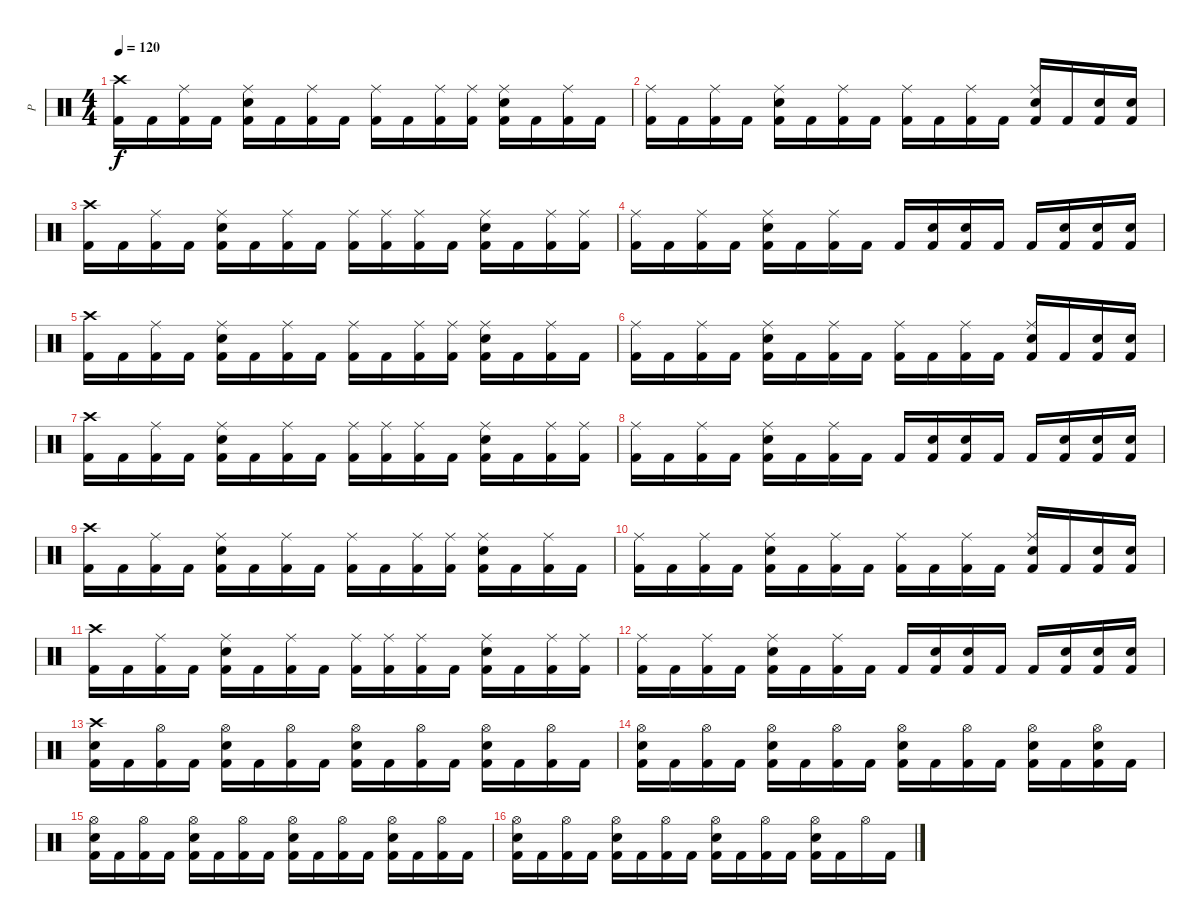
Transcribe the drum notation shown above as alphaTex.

\track ("P" "P") {instrument percussion}
\staff {score}
\articulation defaults
\ts (4 4)
\tempo 120
\clef neutral
\ks c
("Crash high (hit)" "Kick (hit) 2").16{dy f} "Kick (hit) 2".16 ("Ride (middle)" "Kick (hit) 2").16 "Kick (hit) 2".16 ("Ride (middle)" "Electric Snare (hit)" "Kick (hit) 2").16 "Kick (hit) 2".16 ("Ride (middle)" "Kick (hit) 2").16 "Kick (hit) 2".16 ("Ride (middle)" "Kick (hit) 2").16 "Kick (hit) 2".16 ("Ride (middle)" "Kick (hit) 2").16 ("Ride (middle)" "Kick (hit) 2").16 ("Ride (middle)" "Electric Snare (hit)" "Kick (hit) 2").16 "Kick (hit) 2".16 ("Ride (middle)" "Kick (hit) 2").16 "Kick (hit) 2".16 |
("Ride (middle)" "Kick (hit) 2").16 "Kick (hit) 2".16 ("Ride (middle)" "Kick (hit) 2").16 "Kick (hit) 2".16 ("Ride (middle)" "Electric Snare (hit)" "Kick (hit) 2").16 "Kick (hit) 2".16 ("Ride (middle)" "Kick (hit) 2").16 "Kick (hit) 2".16 ("Ride (middle)" "Kick (hit) 2").16 "Kick (hit) 2".16 ("Ride (middle)" "Kick (hit) 2").16 "Kick (hit) 2".16 ("Ride (middle)" "Electric Snare (hit)" "Kick (hit) 2").16 "Kick (hit) 2".16 ("Electric Snare (hit)" "Kick (hit) 2").16 ("Electric Snare (hit)" "Kick (hit) 2").16 |
("Crash high (hit)" "Kick (hit) 2").16 "Kick (hit) 2".16 ("Ride (middle)" "Kick (hit) 2").16 "Kick (hit) 2".16 ("Ride (middle)" "Electric Snare (hit)" "Kick (hit) 2").16 "Kick (hit) 2".16 ("Ride (middle)" "Kick (hit) 2").16 "Kick (hit) 2".16 ("Ride (middle)" "Kick (hit) 2").16 ("Ride (middle)" "Kick (hit) 2").16 ("Ride (middle)" "Kick (hit) 2").16 "Kick (hit) 2".16 ("Ride (middle)" "Electric Snare (hit)" "Kick (hit) 2").16 "Kick (hit) 2".16 ("Ride (middle)" "Kick (hit) 2").16 ("Ride (middle)" "Kick (hit) 2").16 |
("Ride (middle)" "Kick (hit) 2").16 "Kick (hit) 2".16 ("Ride (middle)" "Kick (hit) 2").16 "Kick (hit) 2".16 ("Ride (middle)" "Electric Snare (hit)" "Kick (hit) 2").16 "Kick (hit) 2".16 ("Ride (middle)" "Kick (hit) 2").16 "Kick (hit) 2".16 "Kick (hit) 2".16 ("Electric Snare (hit)" "Kick (hit) 2").16 ("Electric Snare (hit)" "Kick (hit) 2").16 "Kick (hit) 2".16 "Kick (hit) 2".16 ("Electric Snare (hit)" "Kick (hit) 2").16 ("Electric Snare (hit)" "Kick (hit) 2").16 ("Electric Snare (hit)" "Kick (hit) 2").16 |
("Crash high (hit)" "Kick (hit) 2").16 "Kick (hit) 2".16 ("Ride (middle)" "Kick (hit) 2").16 "Kick (hit) 2".16 ("Ride (middle)" "Electric Snare (hit)" "Kick (hit) 2").16 "Kick (hit) 2".16 ("Ride (middle)" "Kick (hit) 2").16 "Kick (hit) 2".16 ("Ride (middle)" "Kick (hit) 2").16 "Kick (hit) 2".16 ("Ride (middle)" "Kick (hit) 2").16 ("Ride (middle)" "Kick (hit) 2").16 ("Ride (middle)" "Electric Snare (hit)" "Kick (hit) 2").16 "Kick (hit) 2".16 ("Ride (middle)" "Kick (hit) 2").16 "Kick (hit) 2".16 |
("Ride (middle)" "Kick (hit) 2").16 "Kick (hit) 2".16 ("Ride (middle)" "Kick (hit) 2").16 "Kick (hit) 2".16 ("Ride (middle)" "Electric Snare (hit)" "Kick (hit) 2").16 "Kick (hit) 2".16 ("Ride (middle)" "Kick (hit) 2").16 "Kick (hit) 2".16 ("Ride (middle)" "Kick (hit) 2").16 "Kick (hit) 2".16 ("Ride (middle)" "Kick (hit) 2").16 "Kick (hit) 2".16 ("Ride (middle)" "Electric Snare (hit)" "Kick (hit) 2").16 "Kick (hit) 2".16 ("Electric Snare (hit)" "Kick (hit) 2").16 ("Electric Snare (hit)" "Kick (hit) 2").16 |
("Crash high (hit)" "Kick (hit) 2").16 "Kick (hit) 2".16 ("Ride (middle)" "Kick (hit) 2").16 "Kick (hit) 2".16 ("Ride (middle)" "Electric Snare (hit)" "Kick (hit) 2").16 "Kick (hit) 2".16 ("Ride (middle)" "Kick (hit) 2").16 "Kick (hit) 2".16 ("Ride (middle)" "Kick (hit) 2").16 ("Ride (middle)" "Kick (hit) 2").16 ("Ride (middle)" "Kick (hit) 2").16 "Kick (hit) 2".16 ("Ride (middle)" "Electric Snare (hit)" "Kick (hit) 2").16 "Kick (hit) 2".16 ("Ride (middle)" "Kick (hit) 2").16 ("Ride (middle)" "Kick (hit) 2").16 |
("Ride (middle)" "Kick (hit) 2").16 "Kick (hit) 2".16 ("Ride (middle)" "Kick (hit) 2").16 "Kick (hit) 2".16 ("Ride (middle)" "Electric Snare (hit)" "Kick (hit) 2").16 "Kick (hit) 2".16 ("Ride (middle)" "Kick (hit) 2").16 "Kick (hit) 2".16 "Kick (hit) 2".16 ("Electric Snare (hit)" "Kick (hit) 2").16 ("Electric Snare (hit)" "Kick (hit) 2").16 "Kick (hit) 2".16 "Kick (hit) 2".16 ("Electric Snare (hit)" "Kick (hit) 2").16 ("Electric Snare (hit)" "Kick (hit) 2").16 ("Electric Snare (hit)" "Kick (hit) 2").16 |
("Crash high (hit)" "Kick (hit) 2").16 "Kick (hit) 2".16 ("Ride (middle)" "Kick (hit) 2").16 "Kick (hit) 2".16 ("Ride (middle)" "Electric Snare (hit)" "Kick (hit) 2").16 "Kick (hit) 2".16 ("Ride (middle)" "Kick (hit) 2").16 "Kick (hit) 2".16 ("Ride (middle)" "Kick (hit) 2").16 "Kick (hit) 2".16 ("Ride (middle)" "Kick (hit) 2").16 ("Ride (middle)" "Kick (hit) 2").16 ("Ride (middle)" "Electric Snare (hit)" "Kick (hit) 2").16 "Kick (hit) 2".16 ("Ride (middle)" "Kick (hit) 2").16 "Kick (hit) 2".16 |
("Ride (middle)" "Kick (hit) 2").16 "Kick (hit) 2".16 ("Ride (middle)" "Kick (hit) 2").16 "Kick (hit) 2".16 ("Ride (middle)" "Electric Snare (hit)" "Kick (hit) 2").16 "Kick (hit) 2".16 ("Ride (middle)" "Kick (hit) 2").16 "Kick (hit) 2".16 ("Ride (middle)" "Kick (hit) 2").16 "Kick (hit) 2".16 ("Ride (middle)" "Kick (hit) 2").16 "Kick (hit) 2".16 ("Ride (middle)" "Electric Snare (hit)" "Kick (hit) 2").16 "Kick (hit) 2".16 ("Electric Snare (hit)" "Kick (hit) 2").16 ("Electric Snare (hit)" "Kick (hit) 2").16 |
("Crash high (hit)" "Kick (hit) 2").16 "Kick (hit) 2".16 ("Ride (middle)" "Kick (hit) 2").16 "Kick (hit) 2".16 ("Ride (middle)" "Electric Snare (hit)" "Kick (hit) 2").16 "Kick (hit) 2".16 ("Ride (middle)" "Kick (hit) 2").16 "Kick (hit) 2".16 ("Ride (middle)" "Kick (hit) 2").16 ("Ride (middle)" "Kick (hit) 2").16 ("Ride (middle)" "Kick (hit) 2").16 "Kick (hit) 2".16 ("Ride (middle)" "Electric Snare (hit)" "Kick (hit) 2").16 "Kick (hit) 2".16 ("Ride (middle)" "Kick (hit) 2").16 ("Ride (middle)" "Kick (hit) 2").16 |
("Ride (middle)" "Kick (hit) 2").16 "Kick (hit) 2".16 ("Ride (middle)" "Kick (hit) 2").16 "Kick (hit) 2".16 ("Ride (middle)" "Electric Snare (hit)" "Kick (hit) 2").16 "Kick (hit) 2".16 ("Ride (middle)" "Kick (hit) 2").16 "Kick (hit) 2".16 "Kick (hit) 2".16 ("Electric Snare (hit)" "Kick (hit) 2").16 ("Electric Snare (hit)" "Kick (hit) 2").16 "Kick (hit) 2".16 "Kick (hit) 2".16 ("Electric Snare (hit)" "Kick (hit) 2").16 ("Electric Snare (hit)" "Kick (hit) 2").16 ("Electric Snare (hit)" "Kick (hit) 2").16 |
("Crash high (hit)" "Electric Snare (hit)" "Kick (hit) 2").16 "Kick (hit) 2".16 ("Hi-Hat (open)" "Kick (hit) 2").16 "Kick (hit) 2".16 ("Hi-Hat (open)" "Electric Snare (hit)" "Kick (hit) 2").16 "Kick (hit) 2".16 ("Hi-Hat (open)" "Kick (hit) 2").16 "Kick (hit) 2".16 ("Hi-Hat (open)" "Electric Snare (hit)" "Kick (hit) 2").16 "Kick (hit) 2".16 ("Hi-Hat (open)" "Kick (hit) 2").16 "Kick (hit) 2".16 ("Hi-Hat (open)" "Electric Snare (hit)" "Kick (hit) 2").16 "Kick (hit) 2".16 ("Hi-Hat (open)" "Kick (hit) 2").16 "Kick (hit) 2".16 |
("Hi-Hat (open)" "Electric Snare (hit)" "Kick (hit) 2").16 "Kick (hit) 2".16 ("Hi-Hat (open)" "Kick (hit) 2").16 "Kick (hit) 2".16 ("Hi-Hat (open)" "Electric Snare (hit)" "Kick (hit) 2").16 "Kick (hit) 2".16 ("Hi-Hat (open)" "Kick (hit) 2").16 "Kick (hit) 2".16 ("Hi-Hat (open)" "Electric Snare (hit)" "Kick (hit) 2").16 "Kick (hit) 2".16 ("Hi-Hat (open)" "Kick (hit) 2").16 "Kick (hit) 2".16 ("Hi-Hat (open)" "Electric Snare (hit)" "Kick (hit) 2").16 "Kick (hit) 2".16 ("Hi-Hat (open)" "Electric Snare (hit)" "Kick (hit) 2").16 "Kick (hit) 2".16 |
("Hi-Hat (open)" "Electric Snare (hit)" "Kick (hit) 2").16 "Kick (hit) 2".16 ("Hi-Hat (open)" "Kick (hit) 2").16 "Kick (hit) 2".16 ("Hi-Hat (open)" "Electric Snare (hit)" "Kick (hit) 2").16 "Kick (hit) 2".16 ("Hi-Hat (open)" "Kick (hit) 2").16 "Kick (hit) 2".16 ("Hi-Hat (open)" "Electric Snare (hit)" "Kick (hit) 2").16 "Kick (hit) 2".16 ("Hi-Hat (open)" "Kick (hit) 2").16 "Kick (hit) 2".16 ("Hi-Hat (open)" "Electric Snare (hit)" "Kick (hit) 2").16 "Kick (hit) 2".16 ("Hi-Hat (open)" "Kick (hit) 2").16 "Kick (hit) 2".16 |
("Hi-Hat (open)" "Electric Snare (hit)" "Kick (hit) 2").16 "Kick (hit) 2".16 ("Hi-Hat (open)" "Kick (hit) 2").16 "Kick (hit) 2".16 ("Hi-Hat (open)" "Electric Snare (hit)" "Kick (hit) 2").16 "Kick (hit) 2".16 ("Hi-Hat (open)" "Kick (hit) 2").16 "Kick (hit) 2".16 ("Hi-Hat (open)" "Electric Snare (hit)" "Kick (hit) 2").16 "Kick (hit) 2".16 ("Hi-Hat (open)" "Kick (hit) 2").16 "Kick (hit) 2".16 ("Hi-Hat (open)" "Electric Snare (hit)" "Kick (hit) 2").16 "Kick (hit) 2".16 "Hi-Hat (open)".16 "Kick (hit) 2".16
